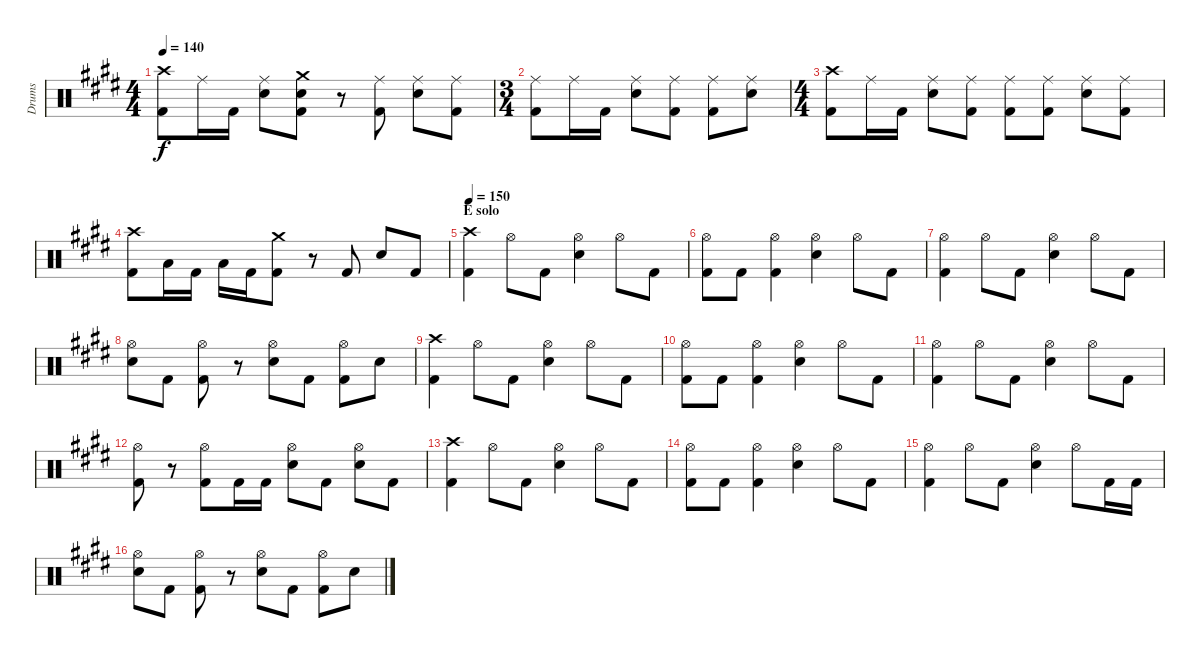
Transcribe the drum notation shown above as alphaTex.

\track ("Drums" "Drums") {instrument percussion}
\staff {score}
\articulation defaults
\ts (4 4)
\tempo 140
\clef neutral
\ks e
("Crash high (hit)" "Kick (hit) 2").8{dy f} "Ride (middle)".16 "Kick (hit) 2".16 ("Ride (middle)" "Electric Snare (hit)").8 ("Crash medium (hit)" "Electric Snare (hit)" "Kick (hit) 2").8 r.8 ("Ride (middle)" "Kick (hit) 2").8 ("Ride (middle)" "Electric Snare (hit)").8 ("Ride (middle)" "Kick (hit) 2").8 |
\ts (3 4)
("Ride (middle)" "Kick (hit) 2").8 "Ride (middle)".16 "Kick (hit) 2".16 ("Ride (middle)" "Electric Snare (hit)").8 ("Ride (middle)" "Kick (hit) 2").8 ("Ride (middle)" "Kick (hit) 2").8 ("Ride (middle)" "Electric Snare (hit)").8 |
\ts (4 4)
("Crash high (hit)" "Kick (hit) 2").8 "Ride (middle)".16 "Kick (hit) 2".16 ("Ride (middle)" "Electric Snare (hit)").8 ("Ride (middle)" "Kick (hit) 2").8 ("Ride (middle)" "Kick (hit) 2").8 ("Ride (middle)" "Kick (hit) 2").8 ("Ride (middle)" "Electric Snare (hit)").8 ("Ride (middle)" "Kick (hit) 2").8 |
("Crash high (hit)" "Kick (hit) 2").8 "Low Tom (hit)".16 "Kick (hit) 2".16 "Low Tom (hit)".16 "Kick (hit) 2".16 ("Crash medium (hit)" "Kick (hit) 2").8 r.8 "Kick (hit) 2".8 "Electric Snare (hit)".8 "Kick (hit) 2".8 |
\section ("" "E solo")
\tempo 150
("Crash high (hit)" "Kick (hit) 2").4 "Hi-Hat (open)".8 "Kick (hit) 2".8 ("Hi-Hat (open)" "Electric Snare (hit)").4 "Hi-Hat (open)".8 "Kick (hit) 2".8 |
("Hi-Hat (open)" "Kick (hit) 2").8 "Kick (hit) 2".8 ("Hi-Hat (open)" "Kick (hit) 2").4 ("Hi-Hat (open)" "Electric Snare (hit)").4 "Hi-Hat (open)".8 "Kick (hit) 2".8 |
("Hi-Hat (open)" "Kick (hit) 2").4 "Hi-Hat (open)".8 "Kick (hit) 2".8 ("Hi-Hat (open)" "Electric Snare (hit)").4 "Hi-Hat (open)".8 "Kick (hit) 2".8 |
("Hi-Hat (open)" "Electric Snare (hit)").8 "Kick (hit) 2".8 ("Hi-Hat (open)" "Kick (hit) 2").8 r.8 ("Hi-Hat (open)" "Electric Snare (hit)").8 "Kick (hit) 2".8 ("Hi-Hat (open)" "Kick (hit) 2").8 "Electric Snare (hit)".8 |
("Crash high (hit)" "Kick (hit) 2").4 "Hi-Hat (open)".8 "Kick (hit) 2".8 ("Hi-Hat (open)" "Electric Snare (hit)").4 "Hi-Hat (open)".8 "Kick (hit) 2".8 |
("Hi-Hat (open)" "Kick (hit) 2").8 "Kick (hit) 2".8 ("Hi-Hat (open)" "Kick (hit) 2").4 ("Hi-Hat (open)" "Electric Snare (hit)").4 "Hi-Hat (open)".8 "Kick (hit) 2".8 |
("Hi-Hat (open)" "Kick (hit) 2").4 "Hi-Hat (open)".8 "Kick (hit) 2".8 ("Hi-Hat (open)" "Electric Snare (hit)").4 "Hi-Hat (open)".8 "Kick (hit) 2".8 |
("Hi-Hat (open)" "Kick (hit) 2").8 r.8 ("Hi-Hat (open)" "Kick (hit) 2").8 "Kick (hit) 2".16 "Kick (hit) 2".16 ("Hi-Hat (open)" "Electric Snare (hit)").8 "Kick (hit) 2".8 ("Hi-Hat (open)" "Electric Snare (hit)").8 "Kick (hit) 2".8 |
("Crash high (hit)" "Kick (hit) 2").4 "Hi-Hat (open)".8 "Kick (hit) 2".8 ("Hi-Hat (open)" "Electric Snare (hit)").4 "Hi-Hat (open)".8 "Kick (hit) 2".8 |
("Hi-Hat (open)" "Kick (hit) 2").8 "Kick (hit) 2".8 ("Hi-Hat (open)" "Kick (hit) 2").4 ("Hi-Hat (open)" "Electric Snare (hit)").4 "Hi-Hat (open)".8 "Kick (hit) 2".8 |
("Hi-Hat (open)" "Kick (hit) 2").4 "Hi-Hat (open)".8 "Kick (hit) 2".8 ("Hi-Hat (open)" "Electric Snare (hit)").4 "Hi-Hat (open)".8 "Kick (hit) 2".16 "Kick (hit) 2".16 |
("Hi-Hat (open)" "Electric Snare (hit)").8 "Kick (hit) 2".8 ("Hi-Hat (open)" "Kick (hit) 2").8 r.8 ("Hi-Hat (open)" "Electric Snare (hit)").8 "Kick (hit) 2".8 ("Hi-Hat (open)" "Kick (hit) 2").8 "Electric Snare (hit)".8
